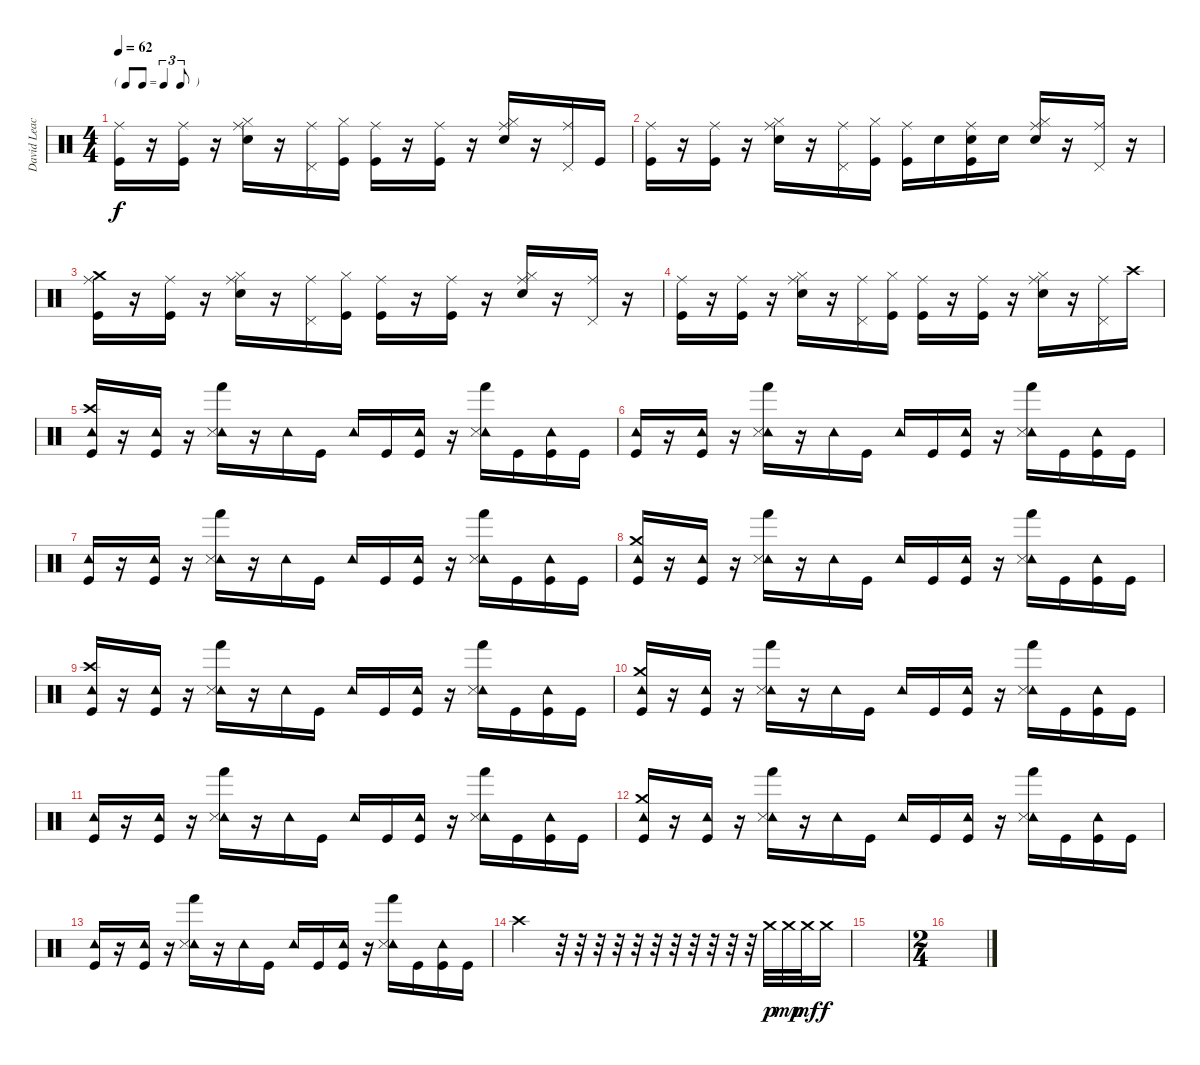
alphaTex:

\track ("David Leach-(Percussions)" "David Leac") {instrument percussion}
\staff {score}
\articulation defaults
\ts (4 4)
\tf triplet8th
\tempo 62
\clef neutral
\ks c
("Ride (middle)" "Kick (hit)").16{dy f volume 13} r.16 ("Ride (middle)" "Kick (hit)").16 r.16 ("Ride (middle)" "Hi-Hat (closed)" "Electric Snare (hit)").16 r.16 ("Ride (middle)" "Pedal Hi-Hat (hit)").16 ("Hi-Hat (closed)" "Kick (hit)").16 ("Ride (middle)" "Kick (hit)").16 r.16 ("Ride (middle)" "Kick (hit)").16 r.16 ("Ride (middle)" "Hi-Hat (closed)" "Electric Snare (hit)").16 r.16 ("Ride (middle)" "Pedal Hi-Hat (hit)").16 "Kick (hit)".16 |
("Ride (middle)" "Kick (hit)").16{volume 13} r.16 ("Ride (middle)" "Kick (hit)").16 r.16 ("Ride (middle)" "Hi-Hat (closed)" "Electric Snare (hit)").16 r.16 ("Ride (middle)" "Pedal Hi-Hat (hit)").16 ("Hi-Hat (closed)" "Kick (hit)").16 ("Ride (middle)" "Kick (hit)").16 "Electric Snare (hit)".16 ("Ride (middle)" "Electric Snare (hit)" "Kick (hit)").16 "Electric Snare (hit)".16 ("Ride (middle)" "Hi-Hat (closed)" "Electric Snare (hit)").16 r.16 ("Ride (middle)" "Pedal Hi-Hat (hit)").16 r.16 |
("Ride (middle)" "Crash medium (hit)" "Kick (hit)").16{volume 13} r.16 ("Ride (middle)" "Kick (hit)").16 r.16 ("Ride (middle)" "Hi-Hat (closed)" "Electric Snare (hit)").16 r.16 ("Ride (middle)" "Pedal Hi-Hat (hit)").16 ("Hi-Hat (closed)" "Kick (hit)").16 ("Ride (middle)" "Kick (hit)").16 r.16 ("Ride (middle)" "Kick (hit)").16 r.16 ("Ride (middle)" "Hi-Hat (closed)" "Electric Snare (hit)").16 r.16 ("Ride (middle)" "Pedal Hi-Hat (hit)").16 r.16 |
("Ride (middle)" "Kick (hit)").16{volume 13} r.16 ("Ride (middle)" "Kick (hit)").16 r.16 ("Ride (middle)" "Hi-Hat (closed)" "Electric Snare (hit)").16 r.16 ("Ride (middle)" "Pedal Hi-Hat (hit)").16 ("Hi-Hat (closed)" "Kick (hit)").16 ("Ride (middle)" "Kick (hit)").16 r.16 ("Ride (middle)" "Kick (hit)").16 r.16 ("Ride (middle)" "Hi-Hat (closed)" "Electric Snare (hit)").16 r.16 ("Ride (middle)" "Pedal Hi-Hat (hit)").16 "Crash high (hit)".16 |
("Tambourine (hit)" "Crash high (hit)" "Kick (hit)").16 r.16 ("Tambourine (hit)" "Kick (hit)").16 r.16 ("Tambourine (hit)" "Snare (side stick) 3" "Hand (hit)").16 r.16 "Tambourine (hit)".16 "Kick (hit)".16 "Tambourine (hit)".16 "Kick (hit)".16 ("Tambourine (hit)" "Kick (hit)").16 r.16 ("Tambourine (hit)" "Snare (side stick) 3" "Hand (hit)").16 "Kick (hit)".16 ("Tambourine (hit)" "Kick (hit)").16 "Kick (hit)".16 |
("Tambourine (hit)" "Kick (hit)").16 r.16 ("Tambourine (hit)" "Kick (hit)").16 r.16 ("Tambourine (hit)" "Snare (side stick) 3" "Hand (hit)").16 r.16 "Tambourine (hit)".16 "Kick (hit)".16 "Tambourine (hit)".16 "Kick (hit)".16 ("Tambourine (hit)" "Kick (hit)").16 r.16 ("Tambourine (hit)" "Snare (side stick) 3" "Hand (hit)").16 "Kick (hit)".16 ("Tambourine (hit)" "Kick (hit)").16 "Kick (hit)".16 |
("Tambourine (hit)" "Kick (hit)").16 r.16 ("Tambourine (hit)" "Kick (hit)").16 r.16 ("Tambourine (hit)" "Snare (side stick) 3" "Hand (hit)").16 r.16 "Tambourine (hit)".16 "Kick (hit)".16 "Tambourine (hit)".16 "Kick (hit)".16 ("Tambourine (hit)" "Kick (hit)").16 r.16 ("Tambourine (hit)" "Snare (side stick) 3" "Hand (hit)").16 "Kick (hit)".16 ("Tambourine (hit)" "Kick (hit)").16 "Kick (hit)".16 |
("Tambourine (hit)" "Crash medium (hit)" "Kick (hit)").16 r.16 ("Tambourine (hit)" "Kick (hit)").16 r.16 ("Tambourine (hit)" "Snare (side stick) 3" "Hand (hit)").16 r.16 "Tambourine (hit)".16 "Kick (hit)".16 "Tambourine (hit)".16 "Kick (hit)".16 ("Tambourine (hit)" "Kick (hit)").16 r.16 ("Tambourine (hit)" "Snare (side stick) 3" "Hand (hit)").16 "Kick (hit)".16 ("Tambourine (hit)" "Kick (hit)").16 "Kick (hit)".16 |
("Tambourine (hit)" "Crash high (hit)" "Kick (hit)").16 r.16 ("Tambourine (hit)" "Kick (hit)").16 r.16 ("Tambourine (hit)" "Snare (side stick) 3" "Hand (hit)").16 r.16 "Tambourine (hit)".16 "Kick (hit)".16 "Tambourine (hit)".16 "Kick (hit)".16 ("Tambourine (hit)" "Kick (hit)").16 r.16 ("Tambourine (hit)" "Snare (side stick) 3" "Hand (hit)").16 "Kick (hit)".16 ("Tambourine (hit)" "Kick (hit)").16 "Kick (hit)".16 |
("Tambourine (hit)" "Crash medium (hit)" "Kick (hit)").16 r.16 ("Tambourine (hit)" "Kick (hit)").16 r.16 ("Tambourine (hit)" "Snare (side stick) 3" "Hand (hit)").16 r.16 "Tambourine (hit)".16 "Kick (hit)".16 "Tambourine (hit)".16 "Kick (hit)".16 ("Tambourine (hit)" "Kick (hit)").16 r.16 ("Tambourine (hit)" "Snare (side stick) 3" "Hand (hit)").16 "Kick (hit)".16 ("Tambourine (hit)" "Kick (hit)").16 "Kick (hit)".16 |
("Tambourine (hit)" "Kick (hit)").16 r.16 ("Tambourine (hit)" "Kick (hit)").16 r.16 ("Tambourine (hit)" "Snare (side stick) 3" "Hand (hit)").16 r.16 "Tambourine (hit)".16 "Kick (hit)".16 "Tambourine (hit)".16 "Kick (hit)".16 ("Tambourine (hit)" "Kick (hit)").16 r.16 ("Tambourine (hit)" "Snare (side stick) 3" "Hand (hit)").16 "Kick (hit)".16 ("Tambourine (hit)" "Kick (hit)").16 "Kick (hit)".16 |
("Tambourine (hit)" "Crash medium (hit)" "Kick (hit)").16 r.16 ("Tambourine (hit)" "Kick (hit)").16 r.16 ("Tambourine (hit)" "Snare (side stick) 3" "Hand (hit)").16 r.16 "Tambourine (hit)".16 "Kick (hit)".16 "Tambourine (hit)".16 "Kick (hit)".16 ("Tambourine (hit)" "Kick (hit)").16 r.16 ("Tambourine (hit)" "Snare (side stick) 3" "Hand (hit)").16 "Kick (hit)".16 ("Tambourine (hit)" "Kick (hit)").16 "Kick (hit)".16 |
("Tambourine (hit)" "Kick (hit)").16 r.16 ("Tambourine (hit)" "Kick (hit)").16 r.16 ("Tambourine (hit)" "Snare (side stick) 3" "Hand (hit)").16 r.16 "Tambourine (hit)".16 "Kick (hit)".16 "Tambourine (hit)".16 "Kick (hit)".16 ("Tambourine (hit)" "Kick (hit)").16 r.16 ("Tambourine (hit)" "Snare (side stick) 3" "Hand (hit)").16 "Kick (hit)".16 ("Tambourine (hit)" "Kick (hit)").16 "Kick (hit)".16 |
"Crash high (hit)".2 r.32 r.32 r.32 r.32 r.32 r.32 r.32 r.32 r.32 r.32 r.32 "Crash medium (hit)".32{dy p} "Crash medium (hit)".32{dy mp} "Crash medium (hit)".32{dy mf} "Crash medium (hit)".16{dy f} |
|
\ts (2 4)
